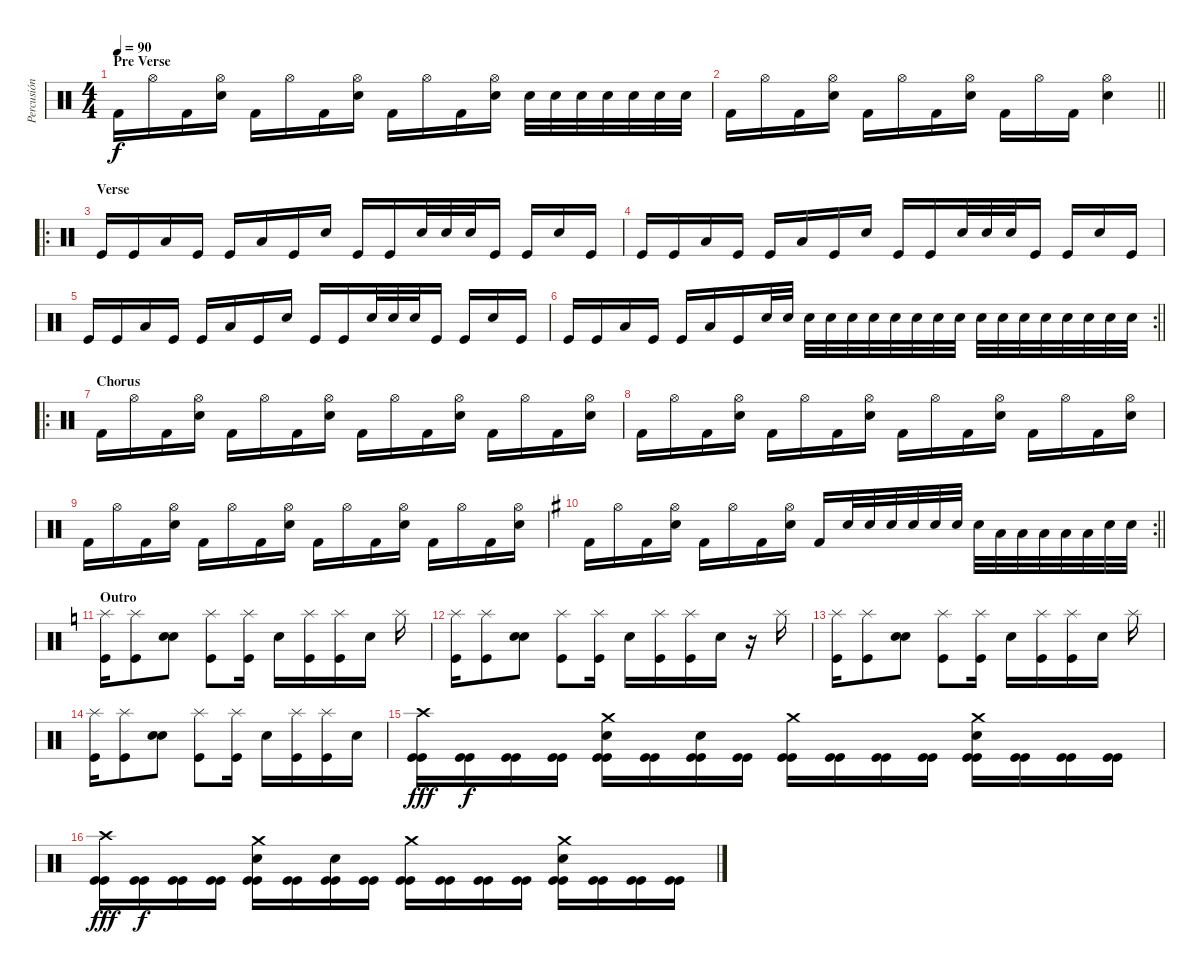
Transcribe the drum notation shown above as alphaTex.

\track ("Percusión" "Percusión") {instrument percussion}
\staff {score}
\articulation defaults
\ts (4 4)
\section ("" "Pre Verse")
\tempo 90
\clef neutral
\ks c "Kick (hit) 2".16{dy f} "Hi-Hat (open)".16 "Kick (hit) 2".16
("Hi-Hat (open)" "Electric Snare (hit)").16 "Kick (hit) 2".16 "Hi-Hat (open)".16 "Kick (hit) 2".16 ("Hi-Hat (open)" "Electric Snare (hit)").16 "Kick (hit) 2".16 "Hi-Hat (open)".16 "Kick (hit) 2".16 ("Hi-Hat (open)" "Electric Snare (hit)").16 "Electric Snare (hit)".32 "Electric Snare (hit)".32 "Electric Snare (hit)".32 "Electric Snare (hit)".32 "Electric Snare (hit)".32 "Electric Snare (hit)".32 "Electric Snare (hit)".32 |
\barLineRight lightlight "Kick (hit) 2".16 "Hi-Hat (open)".16 "Kick (hit) 2".16
("Hi-Hat (open)" "Electric Snare (hit)").16 "Kick (hit) 2".16 "Hi-Hat (open)".16 "Kick (hit) 2".16 ("Hi-Hat (open)" "Electric Snare (hit)").16 "Kick (hit) 2".16 "Hi-Hat (open)".16 "Kick (hit) 2".16 ("Hi-Hat (open)" "Electric Snare (hit)").4 |
\ro
\section ("" "Verse")
"Kick (hit)".16 "Kick (hit)".16 "Low Tom (hit)".16 "Kick (hit)".16 "Kick (hit)".16 "Low Tom (hit)".16 "Kick (hit)".16 "Electric Snare (hit)".16 "Kick (hit)".16 "Kick (hit)".16 "Electric Snare (hit)".32 "Electric Snare (hit)".32 "Electric Snare (hit)".32 "Kick (hit)".16 "Kick (hit)".16 "Electric Snare (hit)".16 "Kick (hit)".16 |
"Kick (hit)".16 "Kick (hit)".16 "Low Tom (hit)".16 "Kick (hit)".16 "Kick (hit)".16 "Low Tom (hit)".16 "Kick (hit)".16 "Electric Snare (hit)".16 "Kick (hit)".16 "Kick (hit)".16 "Electric Snare (hit)".32 "Electric Snare (hit)".32 "Electric Snare (hit)".32 "Kick (hit)".16 "Kick (hit)".16 "Electric Snare (hit)".16 "Kick (hit)".16 |
"Kick (hit)".16 "Kick (hit)".16 "Low Tom (hit)".16 "Kick (hit)".16 "Kick (hit)".16 "Low Tom (hit)".16 "Kick (hit)".16 "Electric Snare (hit)".16 "Kick (hit)".16 "Kick (hit)".16 "Electric Snare (hit)".32 "Electric Snare (hit)".32 "Electric Snare (hit)".32 "Kick (hit)".16 "Kick (hit)".16 "Electric Snare (hit)".16 "Kick (hit)".16 |
\rc 2
\barLineRight lightlight "Kick (hit)".16 "Kick (hit)".16 "Low Tom (hit)".16 "Kick (hit)".16 "Kick (hit)".16 "Low Tom (hit)".16 "Kick (hit)".16 "Electric Snare (hit)".32{volume 10} "Electric Snare (hit)".32 "Electric Snare (hit)".32 "Electric Snare (hit)".32{volume 12} "Electric Snare (hit)".32 "Electric Snare (hit)".32 "Electric Snare (hit)".32 "Electric Snare (hit)".32{volume 13} "Electric Snare (hit)".32 "Electric Snare (hit)".32 "Electric Snare (hit)".32 "Electric Snare (hit)".32 "Electric Snare (hit)".32{volume 16} "Electric Snare (hit)".32 "Electric Snare (hit)".32 "Electric Snare (hit)".32 "Electric Snare (hit)".32 "Electric Snare (hit)".32
|
\ro
\section ("" "Chorus")
"Kick (hit) 2".16 "Hi-Hat (open)".16 "Kick (hit) 2".16 ("Hi-Hat (open)" "Electric Snare (hit)").16 "Kick (hit) 2".16 "Hi-Hat (open)".16 "Kick (hit) 2".16 ("Hi-Hat (open)" "Electric Snare (hit)").16 "Kick (hit) 2".16 "Hi-Hat (open)".16 "Kick (hit) 2".16 ("Hi-Hat (open)" "Electric Snare (hit)").16 "Kick (hit) 2".16 "Hi-Hat (open)".16 "Kick (hit) 2".16 ("Hi-Hat (open)" "Electric Snare (hit)").16 |
"Kick (hit) 2".16 "Hi-Hat (open)".16 "Kick (hit) 2".16 ("Hi-Hat (open)" "Electric Snare (hit)").16 "Kick (hit) 2".16 "Hi-Hat (open)".16 "Kick (hit) 2".16 ("Hi-Hat (open)" "Electric Snare (hit)").16 "Kick (hit) 2".16 "Hi-Hat (open)".16 "Kick (hit) 2".16 ("Hi-Hat (open)" "Electric Snare (hit)").16 "Kick (hit) 2".16 "Hi-Hat (open)".16 "Kick (hit) 2".16 ("Hi-Hat (open)" "Electric Snare (hit)").16 |
"Kick (hit) 2".16 "Hi-Hat (open)".16 "Kick (hit) 2".16 ("Hi-Hat (open)" "Electric Snare (hit)").16 "Kick (hit) 2".16 "Hi-Hat (open)".16 "Kick (hit) 2".16 ("Hi-Hat (open)" "Electric Snare (hit)").16 "Kick (hit) 2".16 "Hi-Hat (open)".16 "Kick (hit) 2".16 ("Hi-Hat (open)" "Electric Snare (hit)").16 "Kick (hit) 2".16 "Hi-Hat (open)".16 "Kick (hit) 2".16 ("Hi-Hat (open)" "Electric Snare (hit)").16 |
\rc 2
\barLineRight lightlight
\ks g "Kick (hit) 2".16 "Hi-Hat (open)".16 "Kick (hit) 2".16
("Hi-Hat (open)" "Electric Snare (hit)").16 "Kick (hit) 2".16 "Hi-Hat (open)".16 "Kick (hit) 2".16 ("Hi-Hat (open)" "Electric Snare (hit)").16 "Kick (hit) 2".16 "Electric Snare (hit)".32 "Electric Snare (hit)".32 "Electric Snare (hit)".32 "Electric Snare (hit)".32 "Electric Snare (hit)".32 "Electric Snare (hit)".32 "Electric Snare (hit)".32 "Low Tom (hit)".32 "Low Tom (hit)".32 "Low Tom (hit)".32 "Low Tom (hit)".32 "Low Tom (hit)".32 "Electric Snare (hit)".32 "Electric Snare (hit)".32 |
\section ("" "Outro")
\ks c
("Splash (hit)" "Kick (hit)").16 ("Splash (hit)" "Kick (hit)").8 ("Electric Snare (hit)" "Electric Snare (hit)").8 ("Splash (hit)" "Kick (hit)").8 ("Splash (hit)" "Kick (hit)").16 "Electric Snare (hit)".16 ("Splash (hit)" "Kick (hit)").16 ("Splash (hit)" "Kick (hit)").16 "Electric Snare (hit)".16 "Splash (hit)".16 |
("Splash (hit)" "Kick (hit)").16 ("Splash (hit)" "Kick (hit)").8 ("Electric Snare (hit)" "Electric Snare (hit)").8 ("Splash (hit)" "Kick (hit)").8 ("Splash (hit)" "Kick (hit)").16 "Electric Snare (hit)".16 ("Splash (hit)" "Kick (hit)").16 ("Splash (hit)" "Kick (hit)").16 "Electric Snare (hit)".16 r.16 "Splash (hit)".16 |
("Splash (hit)" "Kick (hit)").16 ("Splash (hit)" "Kick (hit)").8 ("Electric Snare (hit)" "Electric Snare (hit)").8 ("Splash (hit)" "Kick (hit)").8 ("Splash (hit)" "Kick (hit)").16 "Electric Snare (hit)".16 ("Splash (hit)" "Kick (hit)").16 ("Splash (hit)" "Kick (hit)").16 "Electric Snare (hit)".16 "Splash (hit)".16 |
("Splash (hit)" "Kick (hit)").16 ("Splash (hit)" "Kick (hit)").8 ("Electric Snare (hit)" "Electric Snare (hit)").8 ("Splash (hit)" "Kick (hit)").8 ("Splash (hit)" "Kick (hit)").16 "Electric Snare (hit)".16 ("Splash (hit)" "Kick (hit)").16 ("Splash (hit)" "Kick (hit)").16 "Electric Snare (hit)".16 |
("Crash high (hit)" "Kick (hit)" "Kick (hit)").16{dy fff} ("Kick (hit)" "Kick (hit)").16{dy f} ("Kick (hit)" "Kick (hit)").16 ("Kick (hit)" "Kick (hit)").16 ("Crash medium (hit)" "Electric Snare (hit)" "Kick (hit)" "Kick (hit)").16 ("Kick (hit)" "Kick (hit)").16 ("Electric Snare (hit)" "Kick (hit)" "Kick (hit)").16 ("Kick (hit)" "Kick (hit)").16 ("Crash medium (hit)" "Kick (hit)" "Kick (hit)").16 ("Kick (hit)" "Kick (hit)").16 ("Kick (hit)" "Kick (hit)").16 ("Kick (hit)" "Kick (hit)").16 ("Crash medium (hit)" "Electric Snare (hit)" "Kick (hit)" "Kick (hit)").16 ("Kick (hit)" "Kick (hit)").16 ("Kick (hit)" "Kick (hit)").16 ("Kick (hit)" "Kick (hit)").16 |
("Crash high (hit)" "Kick (hit)" "Kick (hit)").16{dy fff} ("Kick (hit)" "Kick (hit)").16{dy f} ("Kick (hit)" "Kick (hit)").16 ("Kick (hit)" "Kick (hit)").16 ("Crash medium (hit)" "Electric Snare (hit)" "Kick (hit)" "Kick (hit)").16 ("Kick (hit)" "Kick (hit)").16 ("Electric Snare (hit)" "Kick (hit)" "Kick (hit)").16 ("Kick (hit)" "Kick (hit)").16 ("Crash medium (hit)" "Kick (hit)" "Kick (hit)").16 ("Kick (hit)" "Kick (hit)").16 ("Kick (hit)" "Kick (hit)").16 ("Kick (hit)" "Kick (hit)").16 ("Crash medium (hit)" "Electric Snare (hit)" "Kick (hit)" "Kick (hit)").16 ("Kick (hit)" "Kick (hit)").16 ("Kick (hit)" "Kick (hit)").16 ("Kick (hit)" "Kick (hit)").16
